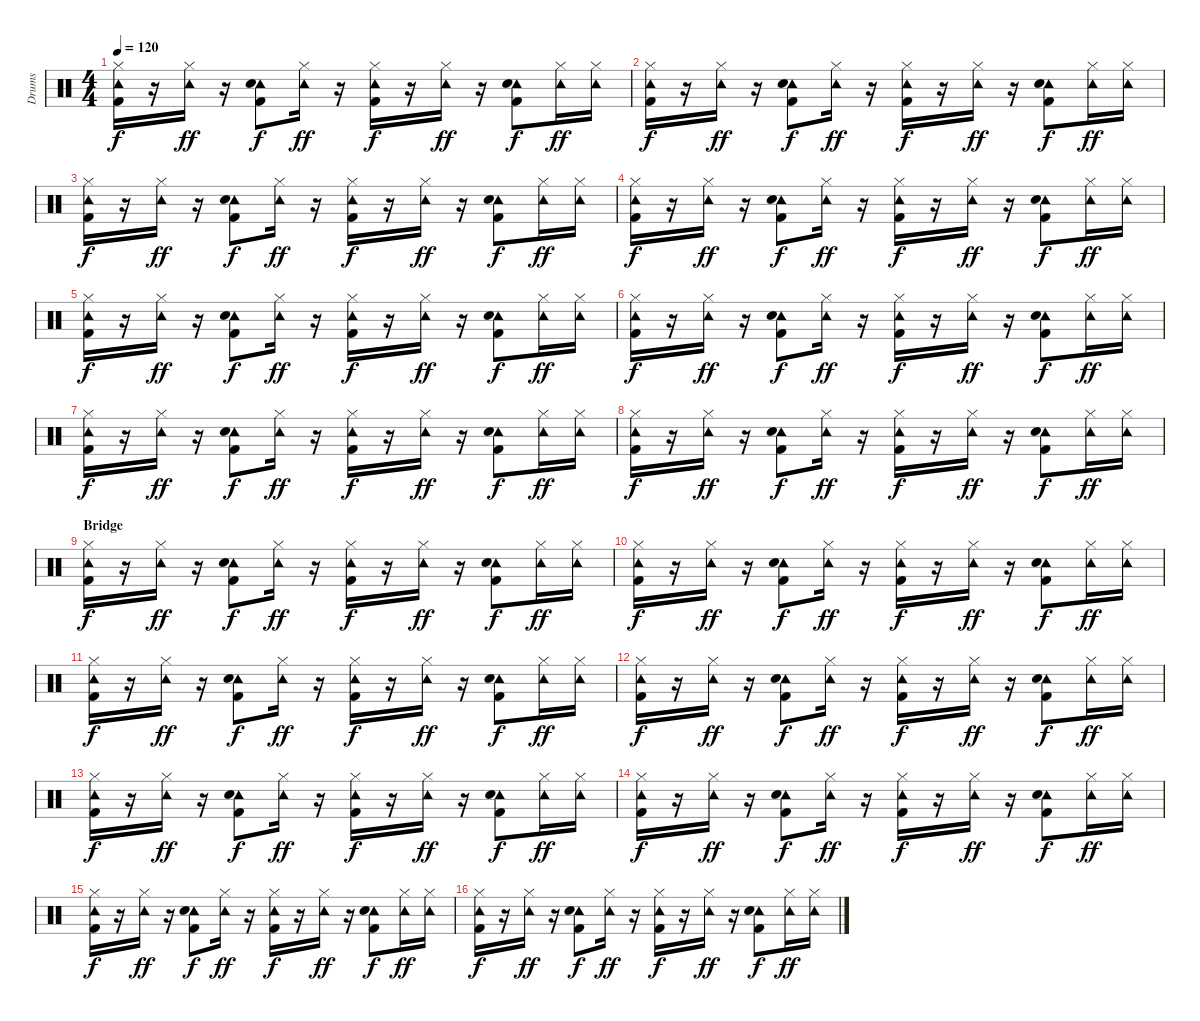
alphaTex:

\track ("Drums" "Drums") {instrument percussion}
\staff {score}
\articulation defaults
\ts (4 4)
\tempo 120
\clef neutral
\ks c
("Hi-Hat (closed)" "Tambourine (hit)" "Kick (hit) 2").16{dy f} r.16 ("Hi-Hat (closed)" "Tambourine (hit)").16{dy ff} r.16 ("Tambourine (hit)" "Electric Snare (hit)" "Kick (hit) 2").8{dy f} ("Hi-Hat (closed)" "Tambourine (hit)").16{dy ff} r.16 ("Hi-Hat (closed)" "Tambourine (hit)" "Kick (hit) 2").16{dy f} r.16 ("Hi-Hat (closed)" "Tambourine (hit)").16{dy ff} r.16 ("Tambourine (hit)" "Electric Snare (hit)" "Kick (hit) 2").8{dy f} ("Hi-Hat (closed)" "Tambourine (hit)").16{dy ff} ("Hi-Hat (closed)" "Tambourine (hit)").16 |
("Hi-Hat (closed)" "Tambourine (hit)" "Kick (hit) 2").16{dy f} r.16 ("Hi-Hat (closed)" "Tambourine (hit)").16{dy ff} r.16 ("Tambourine (hit)" "Electric Snare (hit)" "Kick (hit) 2").8{dy f} ("Hi-Hat (closed)" "Tambourine (hit)").16{dy ff} r.16 ("Hi-Hat (closed)" "Tambourine (hit)" "Kick (hit) 2").16{dy f} r.16 ("Hi-Hat (closed)" "Tambourine (hit)").16{dy ff} r.16 ("Tambourine (hit)" "Electric Snare (hit)" "Kick (hit) 2").8{dy f} ("Hi-Hat (closed)" "Tambourine (hit)").16{dy ff} ("Hi-Hat (closed)" "Tambourine (hit)").16 |
("Hi-Hat (closed)" "Tambourine (hit)" "Kick (hit) 2").16{dy f} r.16 ("Hi-Hat (closed)" "Tambourine (hit)").16{dy ff} r.16 ("Tambourine (hit)" "Electric Snare (hit)" "Kick (hit) 2").8{dy f} ("Hi-Hat (closed)" "Tambourine (hit)").16{dy ff} r.16 ("Hi-Hat (closed)" "Tambourine (hit)" "Kick (hit) 2").16{dy f} r.16 ("Hi-Hat (closed)" "Tambourine (hit)").16{dy ff} r.16 ("Tambourine (hit)" "Electric Snare (hit)" "Kick (hit) 2").8{dy f} ("Hi-Hat (closed)" "Tambourine (hit)").16{dy ff} ("Hi-Hat (closed)" "Tambourine (hit)").16 |
("Hi-Hat (closed)" "Tambourine (hit)" "Kick (hit) 2").16{dy f} r.16 ("Hi-Hat (closed)" "Tambourine (hit)").16{dy ff} r.16 ("Tambourine (hit)" "Electric Snare (hit)" "Kick (hit) 2").8{dy f} ("Hi-Hat (closed)" "Tambourine (hit)").16{dy ff} r.16 ("Hi-Hat (closed)" "Tambourine (hit)" "Kick (hit) 2").16{dy f} r.16 ("Hi-Hat (closed)" "Tambourine (hit)").16{dy ff} r.16 ("Tambourine (hit)" "Electric Snare (hit)" "Kick (hit) 2").8{dy f} ("Hi-Hat (closed)" "Tambourine (hit)").16{dy ff} ("Hi-Hat (closed)" "Tambourine (hit)").16 |
("Hi-Hat (closed)" "Tambourine (hit)" "Kick (hit) 2").16{dy f} r.16 ("Hi-Hat (closed)" "Tambourine (hit)").16{dy ff} r.16 ("Tambourine (hit)" "Electric Snare (hit)" "Kick (hit) 2").8{dy f} ("Hi-Hat (closed)" "Tambourine (hit)").16{dy ff} r.16 ("Hi-Hat (closed)" "Tambourine (hit)" "Kick (hit) 2").16{dy f} r.16 ("Hi-Hat (closed)" "Tambourine (hit)").16{dy ff} r.16 ("Tambourine (hit)" "Electric Snare (hit)" "Kick (hit) 2").8{dy f} ("Hi-Hat (closed)" "Tambourine (hit)").16{dy ff} ("Hi-Hat (closed)" "Tambourine (hit)").16 |
("Hi-Hat (closed)" "Tambourine (hit)" "Kick (hit) 2").16{dy f} r.16 ("Hi-Hat (closed)" "Tambourine (hit)").16{dy ff} r.16 ("Tambourine (hit)" "Electric Snare (hit)" "Kick (hit) 2").8{dy f} ("Hi-Hat (closed)" "Tambourine (hit)").16{dy ff} r.16 ("Hi-Hat (closed)" "Tambourine (hit)" "Kick (hit) 2").16{dy f} r.16 ("Hi-Hat (closed)" "Tambourine (hit)").16{dy ff} r.16 ("Tambourine (hit)" "Electric Snare (hit)" "Kick (hit) 2").8{dy f} ("Hi-Hat (closed)" "Tambourine (hit)").16{dy ff} ("Hi-Hat (closed)" "Tambourine (hit)").16 |
("Hi-Hat (closed)" "Tambourine (hit)" "Kick (hit) 2").16{dy f} r.16 ("Hi-Hat (closed)" "Tambourine (hit)").16{dy ff} r.16 ("Tambourine (hit)" "Electric Snare (hit)" "Kick (hit) 2").8{dy f} ("Hi-Hat (closed)" "Tambourine (hit)").16{dy ff} r.16 ("Hi-Hat (closed)" "Tambourine (hit)" "Kick (hit) 2").16{dy f} r.16 ("Hi-Hat (closed)" "Tambourine (hit)").16{dy ff} r.16 ("Tambourine (hit)" "Electric Snare (hit)" "Kick (hit) 2").8{dy f} ("Hi-Hat (closed)" "Tambourine (hit)").16{dy ff} ("Hi-Hat (closed)" "Tambourine (hit)").16 |
("Hi-Hat (closed)" "Tambourine (hit)" "Kick (hit) 2").16{dy f} r.16 ("Hi-Hat (closed)" "Tambourine (hit)").16{dy ff} r.16 ("Tambourine (hit)" "Electric Snare (hit)" "Kick (hit) 2").8{dy f} ("Hi-Hat (closed)" "Tambourine (hit)").16{dy ff} r.16 ("Hi-Hat (closed)" "Tambourine (hit)" "Kick (hit) 2").16{dy f} r.16 ("Hi-Hat (closed)" "Tambourine (hit)").16{dy ff} r.16 ("Tambourine (hit)" "Electric Snare (hit)" "Kick (hit) 2").8{dy f} ("Hi-Hat (closed)" "Tambourine (hit)").16{dy ff} ("Hi-Hat (closed)" "Tambourine (hit)").16 |
\section ("" "Bridge")
("Hi-Hat (closed)" "Tambourine (hit)" "Kick (hit) 2").16{dy f} r.16 ("Hi-Hat (closed)" "Tambourine (hit)").16{dy ff} r.16 ("Tambourine (hit)" "Electric Snare (hit)" "Kick (hit) 2").8{dy f} ("Hi-Hat (closed)" "Tambourine (hit)").16{dy ff} r.16 ("Hi-Hat (closed)" "Tambourine (hit)" "Kick (hit) 2").16{dy f} r.16 ("Hi-Hat (closed)" "Tambourine (hit)").16{dy ff} r.16 ("Tambourine (hit)" "Electric Snare (hit)" "Kick (hit) 2").8{dy f} ("Hi-Hat (closed)" "Tambourine (hit)").16{dy ff} ("Hi-Hat (closed)" "Tambourine (hit)").16 |
("Hi-Hat (closed)" "Tambourine (hit)" "Kick (hit) 2").16{dy f} r.16 ("Hi-Hat (closed)" "Tambourine (hit)").16{dy ff} r.16 ("Tambourine (hit)" "Electric Snare (hit)" "Kick (hit) 2").8{dy f} ("Hi-Hat (closed)" "Tambourine (hit)").16{dy ff} r.16 ("Hi-Hat (closed)" "Tambourine (hit)" "Kick (hit) 2").16{dy f} r.16 ("Hi-Hat (closed)" "Tambourine (hit)").16{dy ff} r.16 ("Tambourine (hit)" "Electric Snare (hit)" "Kick (hit) 2").8{dy f} ("Hi-Hat (closed)" "Tambourine (hit)").16{dy ff} ("Hi-Hat (closed)" "Tambourine (hit)").16 |
("Hi-Hat (closed)" "Tambourine (hit)" "Kick (hit) 2").16{dy f} r.16 ("Hi-Hat (closed)" "Tambourine (hit)").16{dy ff} r.16 ("Tambourine (hit)" "Electric Snare (hit)" "Kick (hit) 2").8{dy f} ("Hi-Hat (closed)" "Tambourine (hit)").16{dy ff} r.16 ("Hi-Hat (closed)" "Tambourine (hit)" "Kick (hit) 2").16{dy f} r.16 ("Hi-Hat (closed)" "Tambourine (hit)").16{dy ff} r.16 ("Tambourine (hit)" "Electric Snare (hit)" "Kick (hit) 2").8{dy f} ("Hi-Hat (closed)" "Tambourine (hit)").16{dy ff} ("Hi-Hat (closed)" "Tambourine (hit)").16 |
("Hi-Hat (closed)" "Tambourine (hit)" "Kick (hit) 2").16{dy f} r.16 ("Hi-Hat (closed)" "Tambourine (hit)").16{dy ff} r.16 ("Tambourine (hit)" "Electric Snare (hit)" "Kick (hit) 2").8{dy f} ("Hi-Hat (closed)" "Tambourine (hit)").16{dy ff} r.16 ("Hi-Hat (closed)" "Tambourine (hit)" "Kick (hit) 2").16{dy f} r.16 ("Hi-Hat (closed)" "Tambourine (hit)").16{dy ff} r.16 ("Tambourine (hit)" "Electric Snare (hit)" "Kick (hit) 2").8{dy f} ("Hi-Hat (closed)" "Tambourine (hit)").16{dy ff} ("Hi-Hat (closed)" "Tambourine (hit)").16 |
("Hi-Hat (closed)" "Tambourine (hit)" "Kick (hit) 2").16{dy f} r.16 ("Hi-Hat (closed)" "Tambourine (hit)").16{dy ff} r.16 ("Tambourine (hit)" "Electric Snare (hit)" "Kick (hit) 2").8{dy f} ("Hi-Hat (closed)" "Tambourine (hit)").16{dy ff} r.16 ("Hi-Hat (closed)" "Tambourine (hit)" "Kick (hit) 2").16{dy f} r.16 ("Hi-Hat (closed)" "Tambourine (hit)").16{dy ff} r.16 ("Tambourine (hit)" "Electric Snare (hit)" "Kick (hit) 2").8{dy f} ("Hi-Hat (closed)" "Tambourine (hit)").16{dy ff} ("Hi-Hat (closed)" "Tambourine (hit)").16 |
("Hi-Hat (closed)" "Tambourine (hit)" "Kick (hit) 2").16{dy f} r.16 ("Hi-Hat (closed)" "Tambourine (hit)").16{dy ff} r.16 ("Tambourine (hit)" "Electric Snare (hit)" "Kick (hit) 2").8{dy f} ("Hi-Hat (closed)" "Tambourine (hit)").16{dy ff} r.16 ("Hi-Hat (closed)" "Tambourine (hit)" "Kick (hit) 2").16{dy f} r.16 ("Hi-Hat (closed)" "Tambourine (hit)").16{dy ff} r.16 ("Tambourine (hit)" "Electric Snare (hit)" "Kick (hit) 2").8{dy f} ("Hi-Hat (closed)" "Tambourine (hit)").16{dy ff} ("Hi-Hat (closed)" "Tambourine (hit)").16 |
("Hi-Hat (closed)" "Tambourine (hit)" "Kick (hit) 2").16{dy f} r.16 ("Hi-Hat (closed)" "Tambourine (hit)").16{dy ff} r.16 ("Tambourine (hit)" "Electric Snare (hit)" "Kick (hit) 2").8{dy f} ("Hi-Hat (closed)" "Tambourine (hit)").16{dy ff} r.16 ("Hi-Hat (closed)" "Tambourine (hit)" "Kick (hit) 2").16{dy f} r.16 ("Hi-Hat (closed)" "Tambourine (hit)").16{dy ff} r.16 ("Tambourine (hit)" "Electric Snare (hit)" "Kick (hit) 2").8{dy f} ("Hi-Hat (closed)" "Tambourine (hit)").16{dy ff} ("Hi-Hat (closed)" "Tambourine (hit)").16 |
("Hi-Hat (closed)" "Tambourine (hit)" "Kick (hit) 2").16{dy f} r.16 ("Hi-Hat (closed)" "Tambourine (hit)").16{dy ff} r.16 ("Tambourine (hit)" "Electric Snare (hit)" "Kick (hit) 2").8{dy f} ("Hi-Hat (closed)" "Tambourine (hit)").16{dy ff} r.16 ("Hi-Hat (closed)" "Tambourine (hit)" "Kick (hit) 2").16{dy f} r.16 ("Hi-Hat (closed)" "Tambourine (hit)").16{dy ff} r.16 ("Tambourine (hit)" "Electric Snare (hit)" "Kick (hit) 2").8{dy f} ("Hi-Hat (closed)" "Tambourine (hit)").16{dy ff} ("Hi-Hat (closed)" "Tambourine (hit)").16
